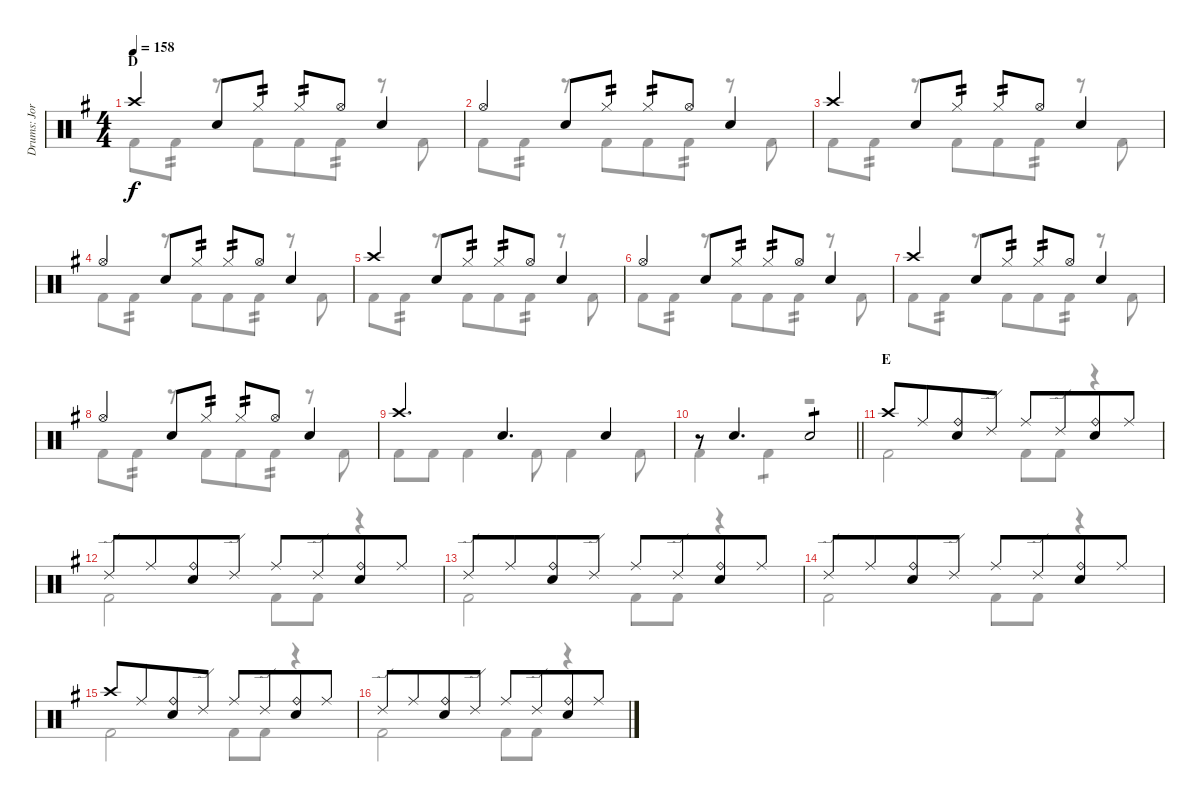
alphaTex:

\track ("Drums: Jorg" "Drums: Jor") {instrument percussion}
\staff {score}
\articulation defaults
\voice
\ts (4 4)
\section ("" "D")
\tempo 158
\clef neutral
\ks g "Crash high (hit)".4{dy f} "Snare (hit) 2".8 "Hi-Hat (closed)".8{tp 2} "Hi-Hat (closed)".8{tp 2} "Hi-Hat (open)".8 "Snare (hit) 2".4
|
"Hi-Hat (open)".4 "Snare (hit) 2".8 "Hi-Hat (closed)".8{tp 2} "Hi-Hat (closed)".8{tp 2} "Hi-Hat (open)".8 "Snare (hit) 2".4 |
"Crash high (hit)".4 "Snare (hit) 2".8 "Hi-Hat (closed)".8{tp 2} "Hi-Hat (closed)".8{tp 2} "Hi-Hat (open)".8 "Snare (hit) 2".4 |
"Hi-Hat (open)".4 "Snare (hit) 2".8 "Hi-Hat (closed)".8{tp 2} "Hi-Hat (closed)".8{tp 2} "Hi-Hat (open)".8 "Snare (hit) 2".4 |
"Crash high (hit)".4 "Snare (hit) 2".8 "Hi-Hat (closed)".8{tp 2} "Hi-Hat (closed)".8{tp 2} "Hi-Hat (open)".8 "Snare (hit) 2".4 |
"Hi-Hat (open)".4 "Snare (hit) 2".8 "Hi-Hat (closed)".8{tp 2} "Hi-Hat (closed)".8{tp 2} "Hi-Hat (open)".8 "Snare (hit) 2".4 |
"Crash high (hit)".4 "Snare (hit) 2".8 "Hi-Hat (closed)".8{tp 2} "Hi-Hat (closed)".8{tp 2} "Hi-Hat (open)".8 "Snare (hit) 2".4 |
"Hi-Hat (open)".4 "Snare (hit) 2".8 "Hi-Hat (closed)".8{tp 2} "Hi-Hat (closed)".8{tp 2} "Hi-Hat (open)".8 "Snare (hit) 2".4 |
"Crash high (hit)".4{d} "Snare (hit) 2".4{d} "Snare (hit) 2".4 |
\barLineRight lightlight
r.8 "Snare (hit) 2".4{d} "Snare (hit) 2".2{tp 1} |
\section ("" "E")
"Crash high (hit)".8 "Ride (middle)".8{beam merge} ("Ride (bell)" "Snare (hit) 2").8 "Ride (edge) 2".8 "Ride (middle)".8 "Ride (edge) 2".8{beam merge} ("Ride (bell)" "Snare (hit) 2").8 "Ride (middle)".8 |
"Ride (edge) 2".8 "Ride (middle)".8{beam merge} ("Ride (bell)" "Snare (hit) 2").8 "Ride (edge) 2".8 "Ride (middle)".8 "Ride (edge) 2".8{beam merge} ("Ride (bell)" "Snare (hit) 2").8 "Ride (middle)".8 |
"Ride (edge) 2".8 "Ride (middle)".8{beam merge} ("Ride (bell)" "Snare (hit) 2").8 "Ride (edge) 2".8 "Ride (middle)".8 "Ride (edge) 2".8{beam merge} ("Ride (bell)" "Snare (hit) 2").8 "Ride (middle)".8 |
"Ride (edge) 2".8 "Ride (middle)".8{beam merge} ("Ride (bell)" "Snare (hit) 2").8 "Ride (edge) 2".8 "Ride (middle)".8 "Ride (edge) 2".8{beam merge} ("Ride (bell)" "Snare (hit) 2").8 "Ride (middle)".8 |
"Crash high (hit)".8 "Ride (middle)".8{beam merge} ("Ride (bell)" "Snare (hit) 2").8 "Ride (edge) 2".8 "Ride (middle)".8 "Ride (edge) 2".8{beam merge} ("Ride (bell)" "Snare (hit) 2").8 "Ride (middle)".8 |
"Ride (edge) 2".8 "Ride (middle)".8{beam merge} ("Ride (bell)" "Snare (hit) 2").8 "Ride (edge) 2".8 "Ride (middle)".8 "Ride (edge) 2".8{beam merge} ("Ride (bell)" "Snare (hit) 2").8 "Ride (middle)".8
\voice
\clef neutral
\ottava regular
\simile none
\ks g "Kick (hit) 2".8{dy f} "Kick (hit) 2".8{tp 2}
r.8 "Kick (hit) 2".8{beam merge} "Kick (hit) 2".8 "Kick (hit) 2".8{tp 2} r.8 "Kick (hit) 2".8 |
"Kick (hit) 2".8 "Kick (hit) 2".8{tp 2} r.8 "Kick (hit) 2".8{beam merge} "Kick (hit) 2".8 "Kick (hit) 2".8{tp 2} r.8 "Kick (hit) 2".8 |
"Kick (hit) 2".8 "Kick (hit) 2".8{tp 2} r.8 "Kick (hit) 2".8{beam merge} "Kick (hit) 2".8 "Kick (hit) 2".8{tp 2} r.8 "Kick (hit) 2".8 |
"Kick (hit) 2".8 "Kick (hit) 2".8{tp 2} r.8 "Kick (hit) 2".8{beam merge} "Kick (hit) 2".8 "Kick (hit) 2".8{tp 2} r.8 "Kick (hit) 2".8 |
"Kick (hit) 2".8 "Kick (hit) 2".8{tp 2} r.8 "Kick (hit) 2".8{beam merge} "Kick (hit) 2".8 "Kick (hit) 2".8{tp 2} r.8 "Kick (hit) 2".8 |
"Kick (hit) 2".8 "Kick (hit) 2".8{tp 2} r.8 "Kick (hit) 2".8{beam merge} "Kick (hit) 2".8 "Kick (hit) 2".8{tp 2} r.8 "Kick (hit) 2".8 |
"Kick (hit) 2".8 "Kick (hit) 2".8{tp 2} r.8 "Kick (hit) 2".8{beam merge} "Kick (hit) 2".8 "Kick (hit) 2".8{tp 2} r.8 "Kick (hit) 2".8 |
"Kick (hit) 2".8 "Kick (hit) 2".8{tp 2} r.8 "Kick (hit) 2".8{beam merge} "Kick (hit) 2".8 "Kick (hit) 2".8{tp 2} r.8 "Kick (hit) 2".8 |
"Kick (hit) 2".8 "Kick (hit) 2".8 "Kick (hit) 2".4 "Kick (hit) 2".8 "Kick (hit) 2".4 "Kick (hit) 2".8 |
\barLineRight lightlight "Kick (hit) 2".4 "Kick (hit) 2".4{tp 1}
r.2 |
"Kick (hit) 2".2 "Kick (hit) 2".8 "Kick (hit) 2".8 r.4 |
"Kick (hit) 2".2 "Kick (hit) 2".8 "Kick (hit) 2".8 r.4 |
"Kick (hit) 2".2 "Kick (hit) 2".8 "Kick (hit) 2".8 r.4 |
"Kick (hit) 2".2 "Kick (hit) 2".8 "Kick (hit) 2".8 r.4 |
"Kick (hit) 2".2 "Kick (hit) 2".8 "Kick (hit) 2".8 r.4 |
"Kick (hit) 2".2 "Kick (hit) 2".8 "Kick (hit) 2".8 r.4
